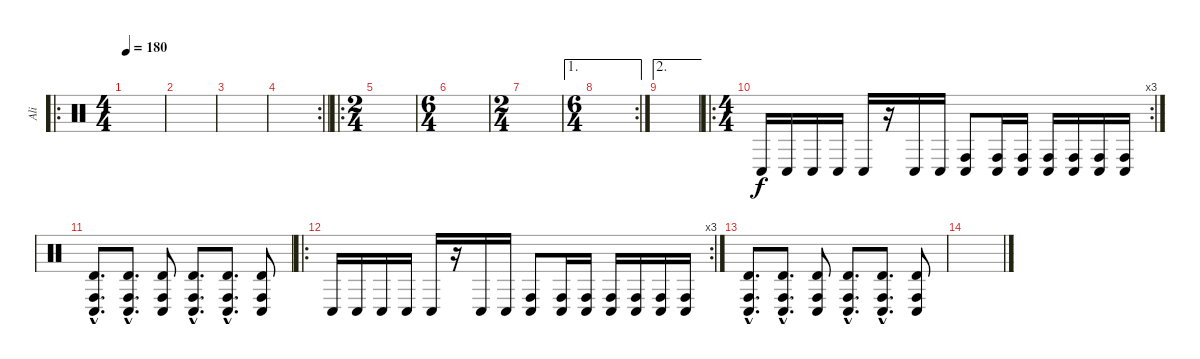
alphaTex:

\track ("Ali" "Ali") {instrument percussion}
\staff {score}
\articulation defaults
\ro
\ts (4 4)
\section ("" "")
\tempo 180
\clef neutral
\ks c
|
|
|
\rc 2
\barLineRight lightlight
|
\ro
\ts (2 4)
\section ("" "")
|
\ts (6 4)
|
\ts (2 4)
|
\ae 1
\rc 2
\ts (6 4)
|
\ae 2
|
\ro
\rc 3
\ts (4 4)
\section ("" "")
"Conga low (hit)".16 "Conga low (hit)".16 "Conga low (hit)".16 "Conga low (hit)".16 "Conga low (hit)".16 r.16 "Conga low (hit)".16 "Conga low (hit)".16 ("Conga high (hit)" "Conga low (hit)").8 ("Conga high (hit)" "Conga low (hit)").16 ("Conga high (hit)" "Conga low (hit)").16 ("Conga high (hit)" "Conga low (hit)").16 ("Conga high (hit)" "Conga low (hit)").16 ("Conga high (hit)" "Conga low (hit)").16 ("Conga high (hit)" "Conga low (hit)").16 |
("Timbale high (hit)"{hac} "Conga high (hit)"{hac} "Conga low (hit)"{hac}).8{d} ("Timbale high (hit)"{hac} "Conga high (hit)"{hac} "Conga low (hit)"{hac}).8{d} ("Timbale high (hit)" "Conga high (hit)" "Conga low (hit)").8 ("Timbale high (hit)"{hac} "Conga high (hit)"{hac} "Conga low (hit)"{hac}).8{d} ("Timbale high (hit)"{hac} "Conga high (hit)"{hac} "Conga low (hit)"{hac}).8{d} ("Timbale high (hit)" "Conga high (hit)" "Conga low (hit)").8 |
\ro
\rc 3 "Conga low (hit)".16 "Conga low (hit)".16 "Conga low (hit)".16 "Conga low (hit)".16 "Conga low (hit)".16
r.16 "Conga low (hit)".16 "Conga low (hit)".16 ("Conga high (hit)" "Conga low (hit)").8 ("Conga high (hit)" "Conga low (hit)").16 ("Conga high (hit)" "Conga low (hit)").16 ("Conga high (hit)" "Conga low (hit)").16 ("Conga high (hit)" "Conga low (hit)").16 ("Conga high (hit)" "Conga low (hit)").16 ("Conga high (hit)" "Conga low (hit)").16 |
("Timbale high (hit)"{hac} "Conga high (hit)"{hac} "Conga low (hit)"{hac}).8{d} ("Timbale high (hit)"{hac} "Conga high (hit)"{hac} "Conga low (hit)"{hac}).8{d} ("Timbale high (hit)" "Conga high (hit)" "Conga low (hit)").8 ("Timbale high (hit)"{hac} "Conga high (hit)"{hac} "Conga low (hit)"{hac}).8{d} ("Timbale high (hit)"{hac} "Conga high (hit)"{hac} "Conga low (hit)"{hac}).8{d} ("Timbale high (hit)" "Conga high (hit)" "Conga low (hit)").8 |
\section ("" "")
